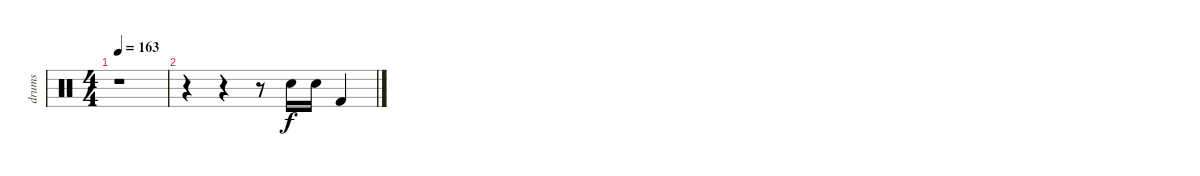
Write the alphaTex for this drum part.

\track ("drums" "drums") {instrument percussion}
\staff {score}
\articulation defaults
\ts (4 4)
\tempo 163
\clef neutral
\ks c
r.1{dy f} |
r.4 r.4 r.8 "Electric Snare (hit)".16 "Electric Snare (hit)".16 "Kick (hit) 2".4
